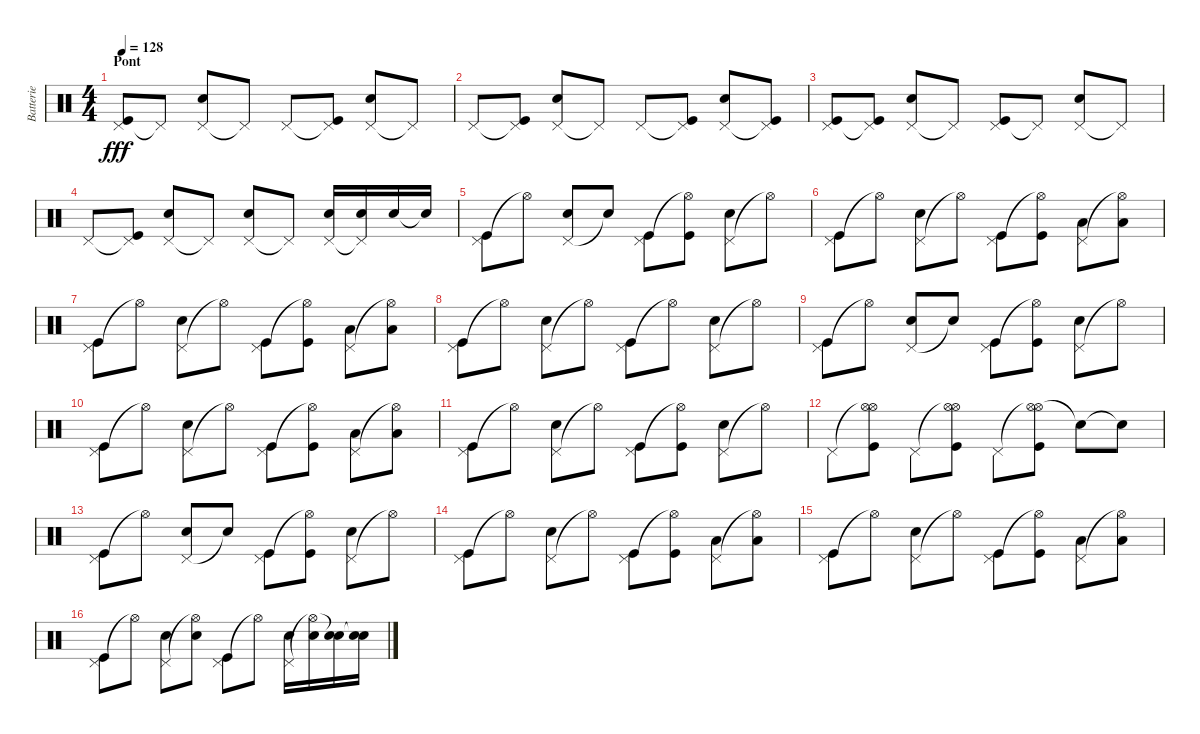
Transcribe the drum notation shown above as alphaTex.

\track ("Batterie" "Batterie") {instrument percussion}
\staff {score}
\articulation defaults
\ts (4 4)
\section ("" "Pont")
\tempo 128
\clef neutral
\ks c
("Pedal Hi-Hat (hit)" "Kick (hit)").8{dy fff} "Pedal Hi-Hat (hit)"{t}.8 ("Pedal Hi-Hat (hit)" "Electric Snare (hit)").8 "Pedal Hi-Hat (hit)"{t}.8 "Pedal Hi-Hat (hit)".8 ("Pedal Hi-Hat (hit)"{t} "Kick (hit)").8 ("Pedal Hi-Hat (hit)" "Electric Snare (hit)").8 "Pedal Hi-Hat (hit)"{t}.8 |
"Pedal Hi-Hat (hit)".8 ("Pedal Hi-Hat (hit)"{t} "Kick (hit)").8 ("Pedal Hi-Hat (hit)" "Electric Snare (hit)").8 "Pedal Hi-Hat (hit)"{t}.8 "Pedal Hi-Hat (hit)".8 ("Pedal Hi-Hat (hit)"{t} "Kick (hit)").8 ("Pedal Hi-Hat (hit)" "Electric Snare (hit)").8 ("Pedal Hi-Hat (hit)"{t} "Kick (hit)").8 |
("Pedal Hi-Hat (hit)" "Kick (hit)").8 ("Pedal Hi-Hat (hit)"{t} "Kick (hit)").8 ("Pedal Hi-Hat (hit)" "Electric Snare (hit)").8 "Pedal Hi-Hat (hit)"{t}.8 ("Pedal Hi-Hat (hit)" "Kick (hit)").8 "Pedal Hi-Hat (hit)"{t}.8 ("Pedal Hi-Hat (hit)" "Electric Snare (hit)").8 "Pedal Hi-Hat (hit)"{t}.8 |
"Pedal Hi-Hat (hit)".8 ("Pedal Hi-Hat (hit)"{t} "Kick (hit)").8 ("Pedal Hi-Hat (hit)" "Electric Snare (hit)").8 "Pedal Hi-Hat (hit)"{t}.8 ("Pedal Hi-Hat (hit)" "Electric Snare (hit)").8 "Pedal Hi-Hat (hit)"{t}.8 ("Pedal Hi-Hat (hit)" "Electric Snare (hit)").16 ("Pedal Hi-Hat (hit)"{t} "Electric Snare (hit)").16 "Electric Snare (hit)".16 "Snare (hit)"{t}.16 |
("Pedal Hi-Hat (hit)" "Kick (hit)").8 "Hi-Hat (open)"{t}.8 ("Pedal Hi-Hat (hit)" "Electric Snare (hit)").8 "Snare (hit)"{t}.8 ("Pedal Hi-Hat (hit)" "Kick (hit)").8 ("Hi-Hat (open)"{t} "Kick (hit)").8 ("Pedal Hi-Hat (hit)" "Electric Snare (hit)").8 "Hi-Hat (open)"{t}.8 |
("Pedal Hi-Hat (hit)" "Kick (hit)").8 "Hi-Hat (open)"{t}.8 ("Pedal Hi-Hat (hit)" "Electric Snare (hit)").8 "Hi-Hat (open)"{t}.8 ("Pedal Hi-Hat (hit)" "Kick (hit)").8 ("Hi-Hat (open)"{t} "Kick (hit)").8 ("Pedal Hi-Hat (hit)" "Low Tom (hit)").8 ("Hi-Hat (open)"{t} "Low Tom (hit)").8 |
("Pedal Hi-Hat (hit)" "Kick (hit)").8 "Hi-Hat (open)"{t}.8 ("Pedal Hi-Hat (hit)" "Electric Snare (hit)").8 "Hi-Hat (open)"{t}.8 ("Pedal Hi-Hat (hit)" "Kick (hit)").8 ("Hi-Hat (open)"{t} "Kick (hit)").8 ("Pedal Hi-Hat (hit)" "Low Tom (hit)").8 ("Hi-Hat (open)"{t} "Low Tom (hit)").8 |
("Pedal Hi-Hat (hit)" "Kick (hit)").8 "Hi-Hat (open)"{t}.8 ("Pedal Hi-Hat (hit)" "Electric Snare (hit)").8 "Hi-Hat (open)"{t}.8 ("Pedal Hi-Hat (hit)" "Kick (hit)").8 "Hi-Hat (open)"{t}.8 ("Pedal Hi-Hat (hit)" "Electric Snare (hit)").8 "Hi-Hat (open)"{t}.8 |
("Pedal Hi-Hat (hit)" "Kick (hit)").8 "Hi-Hat (open)"{t}.8 ("Pedal Hi-Hat (hit)" "Electric Snare (hit)").8 "Snare (hit)"{t}.8 ("Pedal Hi-Hat (hit)" "Kick (hit)").8 ("Hi-Hat (open)"{t} "Kick (hit)").8 ("Pedal Hi-Hat (hit)" "Electric Snare (hit)").8 "Hi-Hat (open)"{t}.8 |
("Pedal Hi-Hat (hit)" "Kick (hit)").8 "Hi-Hat (open)"{t}.8 ("Pedal Hi-Hat (hit)" "Electric Snare (hit)").8 "Hi-Hat (open)"{t}.8 ("Pedal Hi-Hat (hit)" "Kick (hit)").8 ("Hi-Hat (open)"{t} "Kick (hit)").8 ("Pedal Hi-Hat (hit)" "Low Tom (hit)").8 ("Hi-Hat (open)"{t} "Low Tom (hit)").8 |
("Pedal Hi-Hat (hit)" "Kick (hit)").8 "Hi-Hat (open)"{t}.8 ("Pedal Hi-Hat (hit)" "Electric Snare (hit)").8 "Hi-Hat (open)"{t}.8 ("Pedal Hi-Hat (hit)" "Kick (hit)").8 ("Hi-Hat (open)"{t} "Kick (hit)").8 ("Pedal Hi-Hat (hit)" "Electric Snare (hit)").8 "Hi-Hat (open)"{t}.8 |
"Pedal Hi-Hat (hit)".8 ("Hi-Hat (open)"{t} "Hi-Hat (open)" "Kick (hit)").8 "Pedal Hi-Hat (hit)".8 ("Hi-Hat (open)"{t} "Hi-Hat (open)" "Kick (hit)").8 "Pedal Hi-Hat (hit)".8 ("Hi-Hat (open)"{t} "Hi-Hat (open)" "Kick (hit)").8 "Electric Snare (hit)"{t}.8 "Snare (hit)"{t}.8 |
("Pedal Hi-Hat (hit)" "Kick (hit)").8 "Hi-Hat (open)"{t}.8 ("Pedal Hi-Hat (hit)" "Electric Snare (hit)").8 "Snare (hit)"{t}.8 ("Pedal Hi-Hat (hit)" "Kick (hit)").8 ("Hi-Hat (open)"{t} "Kick (hit)").8 ("Pedal Hi-Hat (hit)" "Electric Snare (hit)").8 "Hi-Hat (open)"{t}.8 |
("Pedal Hi-Hat (hit)" "Kick (hit)").8 "Hi-Hat (open)"{t}.8 ("Pedal Hi-Hat (hit)" "Electric Snare (hit)").8 "Hi-Hat (open)"{t}.8 ("Pedal Hi-Hat (hit)" "Kick (hit)").8 ("Hi-Hat (open)"{t} "Kick (hit)").8 ("Pedal Hi-Hat (hit)" "Low Tom (hit)").8 ("Hi-Hat (open)"{t} "Low Tom (hit)").8 |
("Pedal Hi-Hat (hit)" "Kick (hit)").8 "Hi-Hat (open)"{t}.8 ("Pedal Hi-Hat (hit)" "Electric Snare (hit)").8 "Hi-Hat (open)"{t}.8 ("Pedal Hi-Hat (hit)" "Kick (hit)").8 ("Hi-Hat (open)"{t} "Kick (hit)").8 ("Pedal Hi-Hat (hit)" "Low Tom (hit)").8 ("Hi-Hat (open)"{t} "Low Tom (hit)").8 |
("Pedal Hi-Hat (hit)" "Kick (hit)").8 "Hi-Hat (open)"{t}.8 ("Pedal Hi-Hat (hit)" "Electric Snare (hit)").8 ("Hi-Hat (open)"{t} "Electric Snare (hit)").8 ("Pedal Hi-Hat (hit)" "Kick (hit)").8 "Hi-Hat (open)"{t}.8 ("Pedal Hi-Hat (hit)" "Electric Snare (hit)").16 ("Hi-Hat (open)"{t} "Electric Snare (hit)").16 ("Snare (hit)"{t} "Electric Snare (hit)").16 ("Snare (hit)"{t} "Electric Snare (hit)").16
